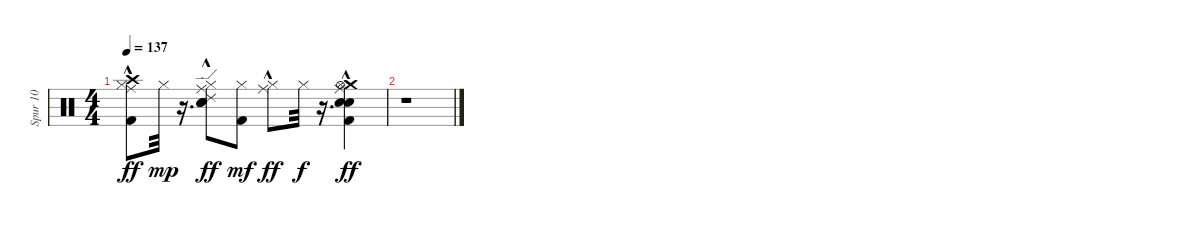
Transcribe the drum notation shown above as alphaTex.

\track ("Spur 10" "Spur 10") {instrument percussion}
\staff {score}
\articulation defaults
\ts (4 4)
\tempo 137
\clef neutral
\ks c
("Kick (hit) 2"{hac} "Crash high (hit)" "Hi-Hat (closed)" "Ride (middle)").8{dy ff} "Hi-Hat (closed)".32{dy mp} r.16{d} ("Electric Snare (hit)" "Snare (hit)" "Snare (hit) 2" "Ride (edge) 2" "Hi-Hat (closed)" "Ride (middle)"{hac}).8{dy ff} ("Kick (hit) 2" "Hi-Hat (closed)").8{dy mf} ("Hi-Hat (closed)" "Ride (middle)"{hac}).8{dy ff} "Hi-Hat (closed)".32{dy f} r.16{d} ("Electric Snare (hit)"{hac} "Snare (hit) 2"{hac} "Crash medium (hit)" "Kick (hit) 2" "Hi-Hat (open)" "Ride (middle)"{hac}).4{dy ff} |
r.1
